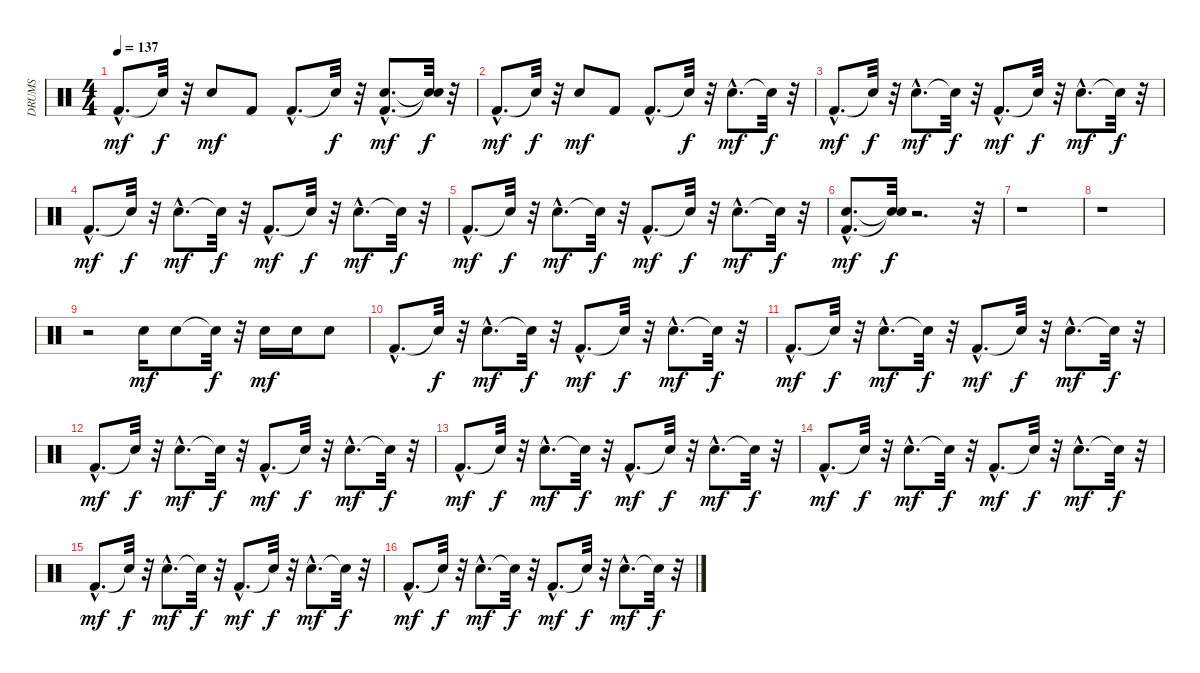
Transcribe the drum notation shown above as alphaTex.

\track ("DRUMS" "DRUMS") {instrument percussion}
\staff {score}
\articulation defaults
\ts (4 4)
\tempo 137
\clef neutral
\ks c "Kick (hit) 2"{hac}.8{d dy mf} "Snare (hit)"{t}.32{dy f}
r.32 "Snare (hit) 2".8{dy mf} "Kick (hit) 2".8 "Kick (hit) 2"{hac}.8{d} "Snare (hit)"{t}.32{dy f} r.32 ("Kick (hit) 2"{hac} "Snare (hit) 2"{hac}).8{d dy mf} ("Snare (hit)"{t} "Snare (hit)"{t}).32{dy f} r.32 |
"Kick (hit) 2"{hac}.8{d dy mf} "Snare (hit)"{t}.32{dy f} r.32 "Snare (hit) 2".8{dy mf} "Kick (hit) 2".8 "Kick (hit) 2"{hac}.8{d} "Snare (hit)"{t}.32{dy f} r.32 "Snare (hit) 2"{hac}.8{d dy mf} "Snare (hit)"{t}.32{dy f} r.32 |
"Kick (hit) 2"{hac}.8{d dy mf} "Snare (hit)"{t}.32{dy f} r.32 "Snare (hit) 2"{hac}.8{d dy mf} "Snare (hit)"{t}.32{dy f} r.32 "Kick (hit) 2"{hac}.8{d dy mf} "Snare (hit)"{t}.32{dy f} r.32 "Snare (hit) 2"{hac}.8{d dy mf} "Snare (hit)"{t}.32{dy f} r.32 |
"Kick (hit) 2"{hac}.8{d dy mf} "Snare (hit)"{t}.32{dy f} r.32 "Snare (hit) 2"{hac}.8{d dy mf} "Snare (hit)"{t}.32{dy f} r.32 "Kick (hit) 2"{hac}.8{d dy mf} "Snare (hit)"{t}.32{dy f} r.32 "Snare (hit) 2"{hac}.8{d dy mf} "Snare (hit)"{t}.32{dy f} r.32 |
"Kick (hit) 2"{hac}.8{d dy mf} "Snare (hit)"{t}.32{dy f} r.32 "Snare (hit) 2"{hac}.8{d dy mf} "Snare (hit)"{t}.32{dy f} r.32 "Kick (hit) 2"{hac}.8{d dy mf} "Snare (hit)"{t}.32{dy f} r.32 "Snare (hit) 2"{hac}.8{d dy mf} "Snare (hit)"{t}.32{dy f} r.32 |
("Snare (hit) 2"{hac} "Kick (hit) 2"{hac}).8{d dy mf} ("Snare (hit)"{t} "Snare (hit)"{t}).32{dy f} r.2{d} r.32 |
r.1 |
r.1 |
r.2 "Snare (hit) 2".16{dy mf} "Snare (hit) 2".8 "Snare (hit)"{t}.32{dy f} r.32 "Snare (hit) 2".16{dy mf} "Snare (hit) 2".16 "Snare (hit) 2".8 |
"Kick (hit) 2"{hac}.8{d} "Snare (hit)"{t}.32{dy f} r.32 "Snare (hit) 2"{hac}.8{d dy mf} "Snare (hit)"{t}.32{dy f} r.32 "Kick (hit) 2"{hac}.8{d dy mf} "Snare (hit)"{t}.32{dy f} r.32 "Snare (hit) 2"{hac}.8{d dy mf} "Snare (hit)"{t}.32{dy f} r.32 |
"Kick (hit) 2"{hac}.8{d dy mf} "Snare (hit)"{t}.32{dy f} r.32 "Snare (hit) 2"{hac}.8{d dy mf} "Snare (hit)"{t}.32{dy f} r.32 "Kick (hit) 2"{hac}.8{d dy mf} "Snare (hit)"{t}.32{dy f} r.32 "Snare (hit) 2"{hac}.8{d dy mf} "Snare (hit)"{t}.32{dy f} r.32 |
"Kick (hit) 2"{hac}.8{d dy mf} "Snare (hit)"{t}.32{dy f} r.32 "Snare (hit) 2"{hac}.8{d dy mf} "Snare (hit)"{t}.32{dy f} r.32 "Kick (hit) 2"{hac}.8{d dy mf} "Snare (hit)"{t}.32{dy f} r.32 "Snare (hit) 2"{hac}.8{d dy mf} "Snare (hit)"{t}.32{dy f} r.32 |
"Kick (hit) 2"{hac}.8{d dy mf} "Snare (hit)"{t}.32{dy f} r.32 "Snare (hit) 2"{hac}.8{d dy mf} "Snare (hit)"{t}.32{dy f} r.32 "Kick (hit) 2"{hac}.8{d dy mf} "Snare (hit)"{t}.32{dy f} r.32 "Snare (hit) 2"{hac}.8{d dy mf} "Snare (hit)"{t}.32{dy f} r.32 |
"Kick (hit) 2"{hac}.8{d dy mf} "Snare (hit)"{t}.32{dy f} r.32 "Snare (hit) 2"{hac}.8{d dy mf} "Snare (hit)"{t}.32{dy f} r.32 "Kick (hit) 2"{hac}.8{d dy mf} "Snare (hit)"{t}.32{dy f} r.32 "Snare (hit) 2"{hac}.8{d dy mf} "Snare (hit)"{t}.32{dy f} r.32 |
"Kick (hit) 2"{hac}.8{d dy mf} "Snare (hit)"{t}.32{dy f} r.32 "Snare (hit) 2"{hac}.8{d dy mf} "Snare (hit)"{t}.32{dy f} r.32 "Kick (hit) 2"{hac}.8{d dy mf} "Snare (hit)"{t}.32{dy f} r.32 "Snare (hit) 2"{hac}.8{d dy mf} "Snare (hit)"{t}.32{dy f} r.32 |
"Kick (hit) 2"{hac}.8{d dy mf} "Snare (hit)"{t}.32{dy f} r.32 "Snare (hit) 2"{hac}.8{d dy mf} "Snare (hit)"{t}.32{dy f} r.32 "Kick (hit) 2"{hac}.8{d dy mf} "Snare (hit)"{t}.32{dy f} r.32 "Snare (hit) 2"{hac}.8{d dy mf} "Snare (hit)"{t}.32{dy f} r.32
